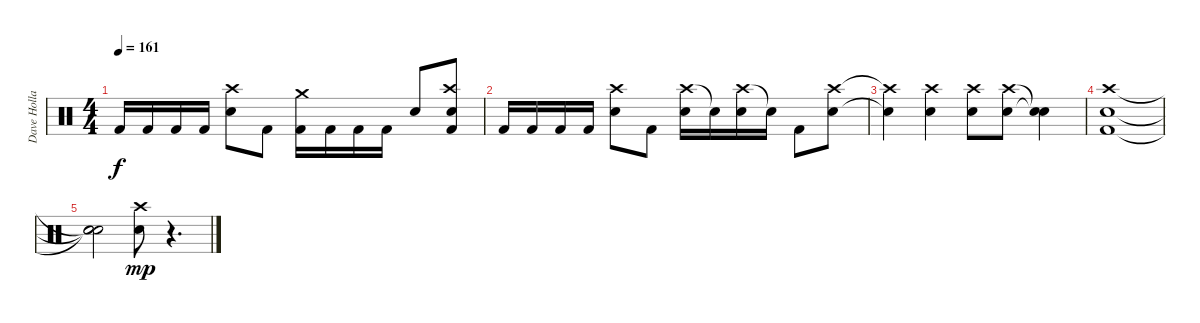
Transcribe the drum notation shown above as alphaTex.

\track ("Dave Holland" "Dave Holla") {instrument percussion}
\staff {score}
\articulation defaults
\ts (4 4)
\tempo 161
\clef neutral
\ks c "Kick (hit) 2".16{dy f} "Kick (hit) 2".16 "Kick (hit) 2".16 "Kick (hit) 2".16
("Crash high (hit)" "Snare (hit) 2").8 "Kick (hit) 2".8 ("Kick (hit) 2" "Crash medium (hit)").16 "Kick (hit) 2".16 "Kick (hit) 2".16 "Kick (hit) 2".16 "Snare (hit) 2".8 ("Kick (hit) 2" "Crash high (hit)" "Snare (hit) 2").8 |
"Kick (hit) 2".16 "Kick (hit) 2".16 "Kick (hit) 2".16 "Kick (hit) 2".16 ("Crash high (hit)" "Snare (hit) 2").8 "Kick (hit) 2".8 ("Crash high (hit)" "Snare (hit) 2").16 "Snare (hit)"{t}.16 ("Crash high (hit)" "Snare (hit) 2").16 "Snare (hit)"{t}.16 "Kick (hit) 2".8 ("Crash high (hit)" "Snare (hit) 2").8 |
("Crash high (hit)"{t} "Snare (hit) 2"{t}).4 ("Crash high (hit)" "Snare (hit) 2").4 ("Crash high (hit)" "Snare (hit) 2").8 ("Crash high (hit)" "Snare (hit) 2").8 ("Snare (hit)"{t} "Snare (hit)"{t}).4 |
("Kick (hit) 2" "Crash high (hit)" "Snare (hit) 2").1 |
("Snare (hit)"{t} "Snare (hit)"{t} "Snare (hit)"{t}).2 ("Crash high (hit)" "Snare (hit) 2").8{dy mp} r.4{d}
